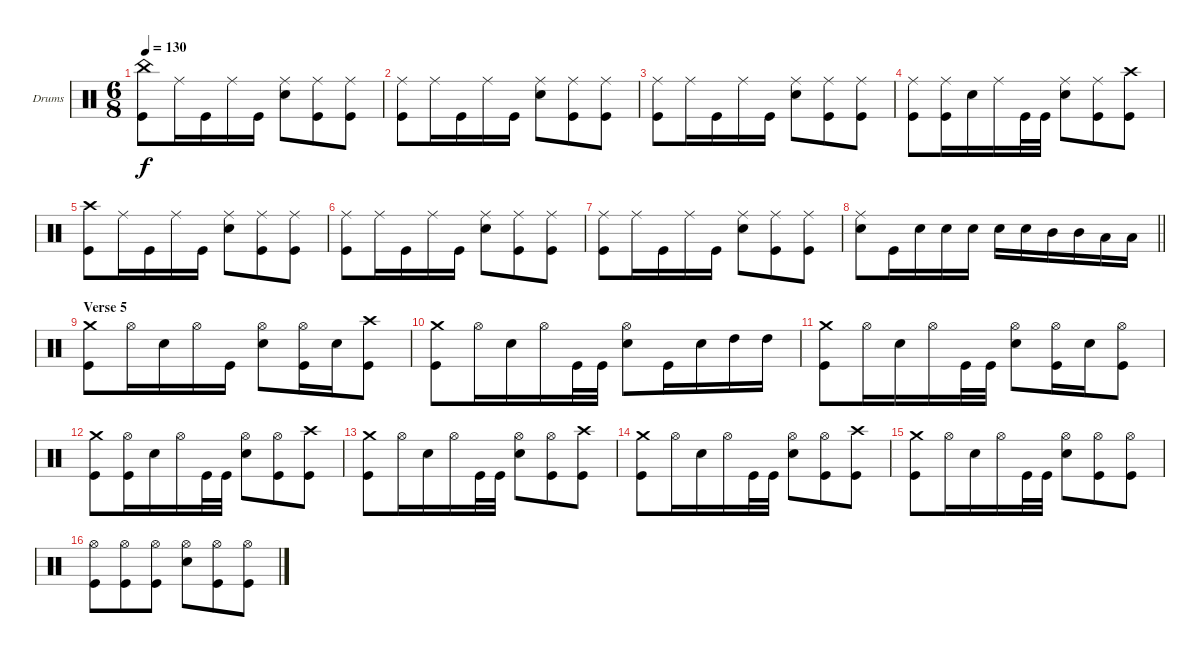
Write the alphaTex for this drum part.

\bracketExtendMode groupsimilarinstruments
\firstSystemTrackNameOrientation horizontal
\otherSystemsTrackNameOrientation horizontal
\track ("drums (Anton Zulganov)" "Drums") {instrument percussion}
\staff {score}
\articulation defaults
\ts (6 8)
\tempo 130
\clef neutral
\ks aminor
("Kick (hit)" "China (hit)").8{dy f} "Ride (middle)".16 "Kick (hit)".16 "Ride (middle)".16 "Kick (hit)".16 ("Snare (hit) 2" "Ride (middle)").8 ("Kick (hit)" "Ride (middle)").8 ("Kick (hit)" "Ride (middle)").8 |
("Kick (hit)" "Ride (middle)").8 "Ride (middle)".16 "Kick (hit)".16 "Ride (middle)".16 "Kick (hit)".16 ("Snare (hit) 2" "Ride (middle)").8 ("Kick (hit)" "Ride (middle)").8 ("Kick (hit)" "Ride (middle)").8 |
("Kick (hit)" "Ride (middle)").8 "Ride (middle)".16 "Kick (hit)".16 "Ride (middle)".16 "Kick (hit)".16 ("Snare (hit) 2" "Ride (middle)").8 ("Kick (hit)" "Ride (middle)").8 ("Kick (hit)" "Ride (middle)").8 |
("Kick (hit)" "Ride (middle)").8 ("Kick (hit)" "Ride (middle)").16 "Snare (hit) 2".16 "Ride (middle)".16 "Kick (hit)".32 "Kick (hit)".32 ("Snare (hit) 2" "Ride (middle)").8 ("Kick (hit)" "Ride (middle)").8 ("Kick (hit)" "Crash high (hit)").8 |
("Kick (hit)" "Crash high (hit)").8 "Ride (middle)".16 "Kick (hit)".16 "Ride (middle)".16 "Kick (hit)".16 ("Snare (hit) 2" "Ride (middle)").8 ("Kick (hit)" "Ride (middle)").8 ("Kick (hit)" "Ride (middle)").8 |
("Kick (hit)" "Ride (middle)").8 "Ride (middle)".16 "Kick (hit)".16 "Ride (middle)".16 "Kick (hit)".16 ("Snare (hit) 2" "Ride (middle)").8 ("Kick (hit)" "Ride (middle)").8 ("Kick (hit)" "Ride (middle)").8 |
("Kick (hit)" "Ride (middle)").8 "Ride (middle)".16 "Kick (hit)".16 "Ride (middle)".16 "Kick (hit)".16 ("Snare (hit) 2" "Ride (middle)").8 ("Kick (hit)" "Ride (middle)").8 ("Kick (hit)" "Ride (middle)").8 |
\barLineRight lightlight
("Snare (hit) 2" "Ride (middle)").8 "Kick (hit)".16 "Snare (hit) 2".16 "Snare (hit) 2".16 "Snare (hit) 2".16 "Snare (hit) 2".16 "Snare (hit) 2".16 "Mid Tom (hit)".16 "Mid Tom (hit)".16 "Low Tom (hit)".16 "Low Tom (hit)".16 |
\section ("" "Verse 5")
("Crash medium (hit)" "Kick (hit)").8 "Hi-Hat (open)".16 "Snare (hit) 2".16 "Hi-Hat (open)".16 "Kick (hit)".16 ("Hi-Hat (open)" "Snare (hit) 2").8 ("Hi-Hat (open)" "Kick (hit)").16 "Snare (hit) 2".16 ("Kick (hit)" "Crash high (hit)").8 |
("Crash medium (hit)" "Kick (hit)").8 "Hi-Hat (open)".16 "Snare (hit) 2".16 "Hi-Hat (open)".16 "Kick (hit)".32 "Kick (hit)".32 ("Hi-Hat (open)" "Snare (hit) 2").8 "Kick (hit)".16 "Snare (hit) 2".16 "High Tom (hit)".16 "High Tom (hit)".16 |
("Crash medium (hit)" "Kick (hit)").8 "Hi-Hat (open)".16 "Snare (hit) 2".16 "Hi-Hat (open)".16 "Kick (hit)".32 "Kick (hit)".32 ("Hi-Hat (open)" "Snare (hit) 2").8 ("Kick (hit)" "Hi-Hat (open)").16 "Snare (hit) 2".16 ("Kick (hit)" "Hi-Hat (open)").8 |
("Crash medium (hit)" "Kick (hit)").8 ("Hi-Hat (open)" "Kick (hit)").16 "Snare (hit) 2".16 "Hi-Hat (open)".16 "Kick (hit)".32 "Kick (hit)".32 ("Hi-Hat (open)" "Snare (hit) 2").8 ("Hi-Hat (open)" "Kick (hit)").8 ("Kick (hit)" "Crash high (hit)").8 |
("Crash medium (hit)" "Kick (hit)").8 "Hi-Hat (open)".16 "Snare (hit) 2".16 "Hi-Hat (open)".16 "Kick (hit)".32 "Kick (hit)".32 ("Hi-Hat (open)" "Snare (hit) 2").8 ("Hi-Hat (open)" "Kick (hit)").8 ("Kick (hit)" "Crash high (hit)").8 |
("Kick (hit)" "Crash medium (hit)").8 "Hi-Hat (open)".16 "Snare (hit) 2".16 "Hi-Hat (open)".16 "Kick (hit)".32 "Kick (hit)".32 ("Hi-Hat (open)" "Snare (hit) 2").8 ("Hi-Hat (open)" "Kick (hit)").8 ("Kick (hit)" "Crash high (hit)").8 |
("Crash medium (hit)" "Kick (hit)").8 "Hi-Hat (open)".16 "Snare (hit) 2".16 "Hi-Hat (open)".16 "Kick (hit)".32 "Kick (hit)".32 ("Hi-Hat (open)" "Snare (hit) 2").8 ("Hi-Hat (open)" "Kick (hit)").8 ("Kick (hit)" "Hi-Hat (open)").8 |
("Kick (hit)" "Hi-Hat (open)").8 ("Hi-Hat (open)" "Kick (hit)").8 ("Hi-Hat (open)" "Kick (hit)").8 ("Hi-Hat (open)" "Snare (hit) 2").8 ("Hi-Hat (open)" "Kick (hit)").8 ("Kick (hit)" "Hi-Hat (open)").8
